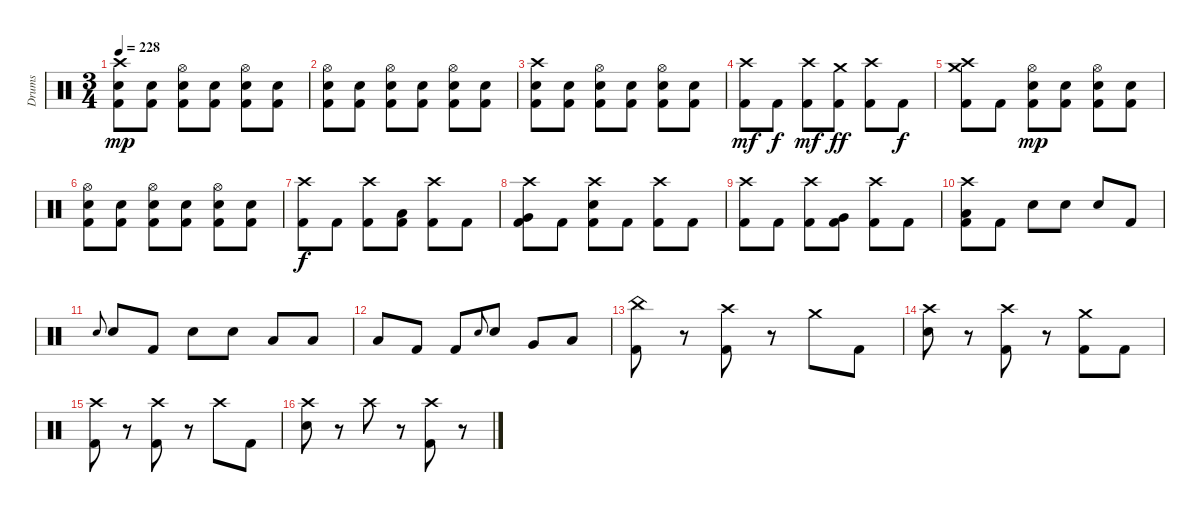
\track ("Drums" "Drums") {instrument percussion}
\staff {score}
\articulation defaults
\ts (3 4)
\tempo 228
\clef neutral
\ks c
("Crash high (hit)" "Electric Snare (hit)" "Kick (hit) 2").8{dy mp} ("Electric Snare (hit)" "Kick (hit) 2").8 ("Hi-Hat (open)" "Electric Snare (hit)" "Kick (hit) 2").8 ("Electric Snare (hit)" "Kick (hit) 2").8 ("Hi-Hat (open)" "Electric Snare (hit)" "Kick (hit) 2").8 ("Electric Snare (hit)" "Kick (hit) 2").8 |
("Hi-Hat (open)" "Electric Snare (hit)" "Kick (hit) 2").8 ("Electric Snare (hit)" "Kick (hit) 2").8 ("Hi-Hat (open)" "Electric Snare (hit)" "Kick (hit) 2").8 ("Electric Snare (hit)" "Kick (hit) 2").8 ("Hi-Hat (open)" "Electric Snare (hit)" "Kick (hit) 2").8 ("Electric Snare (hit)" "Kick (hit) 2").8 |
("Crash high (hit)" "Electric Snare (hit)" "Kick (hit) 2").8 ("Electric Snare (hit)" "Kick (hit) 2").8 ("Hi-Hat (open)" "Electric Snare (hit)" "Kick (hit) 2").8 ("Electric Snare (hit)" "Kick (hit) 2").8 ("Hi-Hat (open)" "Electric Snare (hit)" "Kick (hit) 2").8 ("Electric Snare (hit)" "Kick (hit) 2").8 |
("Crash high (hit)" "Kick (hit) 2").8{dy mf} "Kick (hit) 2".8{dy f} ("Crash high (hit)" "Kick (hit) 2").8{dy mf} ("Crash medium (hit)" "Kick (hit) 2").8{dy ff} ("Crash high (hit)" "Kick (hit) 2").8 "Kick (hit) 2".8{dy f} |
("Crash high (hit)" "Crash medium (hit)" "Kick (hit) 2").8 "Kick (hit) 2".8 ("Hi-Hat (open)" "Electric Snare (hit)" "Kick (hit) 2").8{dy mp} ("Electric Snare (hit)" "Kick (hit) 2").8 ("Hi-Hat (open)" "Electric Snare (hit)" "Kick (hit) 2").8 ("Electric Snare (hit)" "Kick (hit) 2").8 |
("Hi-Hat (open)" "Electric Snare (hit)" "Kick (hit) 2").8 ("Electric Snare (hit)" "Kick (hit) 2").8 ("Hi-Hat (open)" "Electric Snare (hit)" "Kick (hit) 2").8 ("Electric Snare (hit)" "Kick (hit) 2").8 ("Hi-Hat (open)" "Electric Snare (hit)" "Kick (hit) 2").8 ("Electric Snare (hit)" "Kick (hit) 2").8 |
("Crash high (hit)" "Kick (hit) 2").8{dy f} "Kick (hit) 2".8 ("Crash high (hit)" "Kick (hit) 2").8 ("Low Tom (hit)" "Kick (hit) 2").8 ("Crash high (hit)" "Kick (hit) 2").8 "Kick (hit) 2".8 |
("Crash high (hit)" "Very Low Tom (hit)" "Kick (hit) 2").8 "Kick (hit) 2".8 ("Crash high (hit)" "Electric Snare (hit)" "Kick (hit) 2").8 "Kick (hit) 2".8 ("Crash high (hit)" "Kick (hit) 2").8 "Kick (hit) 2".8 |
("Crash high (hit)" "Kick (hit) 2").8 "Kick (hit) 2".8 ("Crash high (hit)" "Kick (hit) 2").8 ("Very Low Tom (hit)" "Kick (hit) 2").8 ("Crash high (hit)" "Kick (hit) 2").8 "Kick (hit) 2".8 |
("Crash high (hit)" "Low Floor Tom (hit)" "Kick (hit) 2").8 "Kick (hit) 2".8 "Electric Snare (hit)".8 "Electric Snare (hit)".8 "Electric Snare (hit)".8 "Kick (hit) 2".8 |
"Electric Snare (hit)".8{gr onbeat} "Electric Snare (hit)".8 "Kick (hit) 2".8 "Electric Snare (hit)".8 "Electric Snare (hit)".8 "Low Tom (hit)".8 "Low Tom (hit)".8 |
"Low Tom (hit)".8 "Kick (hit) 2".8 "Kick (hit) 2".8 "Electric Snare (hit)".8{gr onbeat} "Electric Snare (hit)".8 "Very Low Tom (hit)".8 "Low Floor Tom (hit)".8 |
("China (hit)" "Kick (hit) 2").8 r.8 ("Crash high (hit)" "Kick (hit) 2").8 r.8 "Crash medium (hit)".8 "Kick (hit) 2".8 |
("Crash high (hit)" "Electric Snare (hit)").8 r.8 ("Crash high (hit)" "Kick (hit) 2").8 r.8 ("Crash medium (hit)" "Kick (hit) 2").8 "Kick (hit) 2".8 |
("Crash high (hit)" "Kick (hit) 2").8 r.8 ("Crash high (hit)" "Kick (hit) 2").8 r.8 "Crash high (hit)".8 "Kick (hit) 2".8 |
("Crash high (hit)" "Electric Snare (hit)").8 r.8 "Crash high (hit)".8 r.8 ("Crash high (hit)" "Kick (hit) 2").8 r.8
